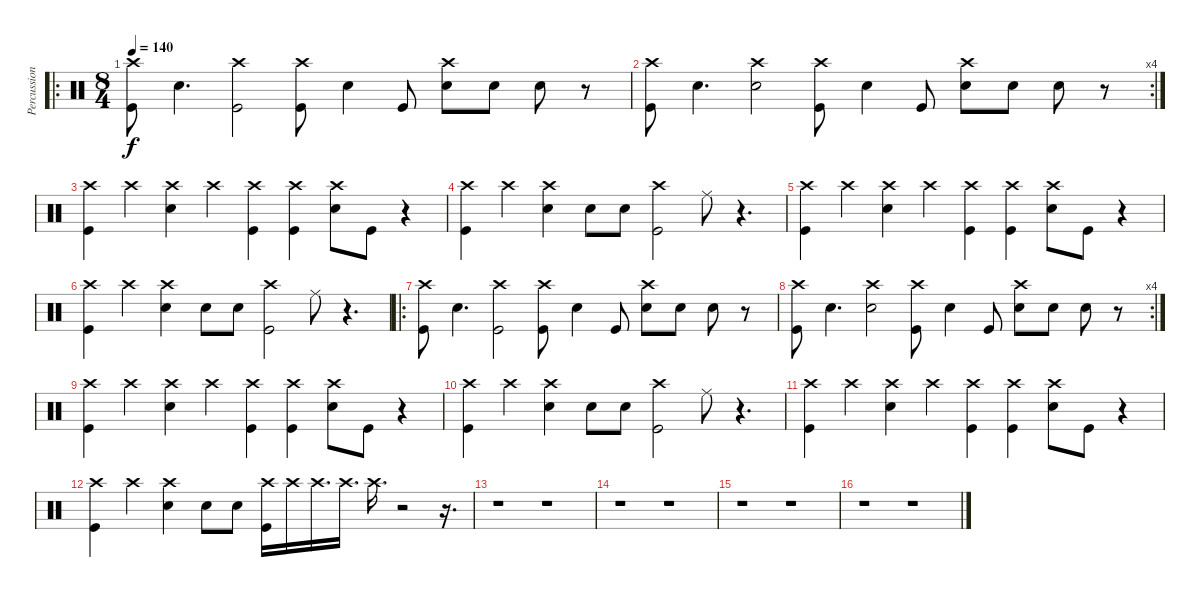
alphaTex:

\track ("Percussion" "Percussion") {instrument percussion}
\staff {score}
\articulation defaults
\ro
\ts (8 4)
\tempo 140
\clef neutral
\ks c
("Crash high (hit)" "Kick (hit)").8{dy f} "Electric Snare (hit)".4{d} ("Crash high (hit)" "Kick (hit)").2 ("Crash high (hit)" "Kick (hit)").8 "Electric Snare (hit)".4 "Kick (hit)".8 ("Crash high (hit)" "Electric Snare (hit)").8 "Electric Snare (hit)".8 "Electric Snare (hit)".8 r.8 |
\rc 4
("Crash high (hit)" "Kick (hit)").8 "Electric Snare (hit)".4{d} ("Crash high (hit)" "Electric Snare (hit)").2 ("Crash high (hit)" "Kick (hit)").8 "Electric Snare (hit)".4 "Kick (hit)".8 ("Crash high (hit)" "Electric Snare (hit)").8 "Electric Snare (hit)".8 "Electric Snare (hit)".8 r.8 |
("Crash high (hit)" "Kick (hit)").4 "Crash high (hit)".4 ("Crash high (hit)" "Electric Snare (hit)").4 "Crash high (hit)".4 ("Crash high (hit)" "Kick (hit)").4 ("Crash high (hit)" "Kick (hit)").4 ("Crash high (hit)" "Electric Snare (hit)").8 "Kick (hit)".8 r.4 |
("Crash high (hit)" "Kick (hit)").4 "Crash high (hit)".4 ("Crash high (hit)" "Electric Snare (hit)").4 "Electric Snare (hit)".8 "Electric Snare (hit)".8 ("Crash high (hit)" "Kick (hit)").2 "Ride (middle)".8 r.4{d} |
("Crash high (hit)" "Kick (hit)").4 "Crash high (hit)".4 ("Crash high (hit)" "Electric Snare (hit)").4 "Crash high (hit)".4 ("Crash high (hit)" "Kick (hit)").4 ("Crash high (hit)" "Kick (hit)").4 ("Crash high (hit)" "Electric Snare (hit)").8 "Kick (hit)".8 r.4 |
("Crash high (hit)" "Kick (hit)").4 "Crash high (hit)".4 ("Crash high (hit)" "Electric Snare (hit)").4 "Electric Snare (hit)".8 "Electric Snare (hit)".8 ("Crash high (hit)" "Kick (hit)").2 "Ride (middle)".8 r.4{d} |
\ro
("Crash high (hit)" "Kick (hit)").8 "Electric Snare (hit)".4{d} ("Crash high (hit)" "Kick (hit)").2 ("Crash high (hit)" "Kick (hit)").8 "Electric Snare (hit)".4 "Kick (hit)".8 ("Crash high (hit)" "Electric Snare (hit)").8 "Electric Snare (hit)".8 "Electric Snare (hit)".8 r.8 |
\rc 4
("Crash high (hit)" "Kick (hit)").8 "Electric Snare (hit)".4{d} ("Crash high (hit)" "Electric Snare (hit)").2 ("Crash high (hit)" "Kick (hit)").8 "Electric Snare (hit)".4 "Kick (hit)".8 ("Crash high (hit)" "Electric Snare (hit)").8 "Electric Snare (hit)".8 "Electric Snare (hit)".8 r.8 |
("Crash high (hit)" "Kick (hit)").4 "Crash high (hit)".4 ("Crash high (hit)" "Electric Snare (hit)").4 "Crash high (hit)".4 ("Crash high (hit)" "Kick (hit)").4 ("Crash high (hit)" "Kick (hit)").4 ("Crash high (hit)" "Electric Snare (hit)").8 "Kick (hit)".8 r.4 |
("Crash high (hit)" "Kick (hit)").4 "Crash high (hit)".4 ("Crash high (hit)" "Electric Snare (hit)").4 "Electric Snare (hit)".8 "Electric Snare (hit)".8 ("Crash high (hit)" "Kick (hit)").2 "Ride (middle)".8 r.4{d} |
("Crash high (hit)" "Kick (hit)").4 "Crash high (hit)".4 ("Crash high (hit)" "Electric Snare (hit)").4 "Crash high (hit)".4 ("Crash high (hit)" "Kick (hit)").4 ("Crash high (hit)" "Kick (hit)").4 ("Crash high (hit)" "Electric Snare (hit)").8 "Kick (hit)".8 r.4 |
("Crash high (hit)" "Kick (hit)").4 "Crash high (hit)".4 ("Crash high (hit)" "Electric Snare (hit)").4 "Electric Snare (hit)".8 "Electric Snare (hit)".8 ("Crash high (hit)" "Kick (hit)").16 "Crash high (hit)".16 "Crash high (hit)".16{d} "Crash high (hit)".16{d} "Crash high (hit)".16{d} r.2 r.16{d} |
r.1 r.1 |
r.1 r.1 |
r.1 r.1 |
r.1 r.1
